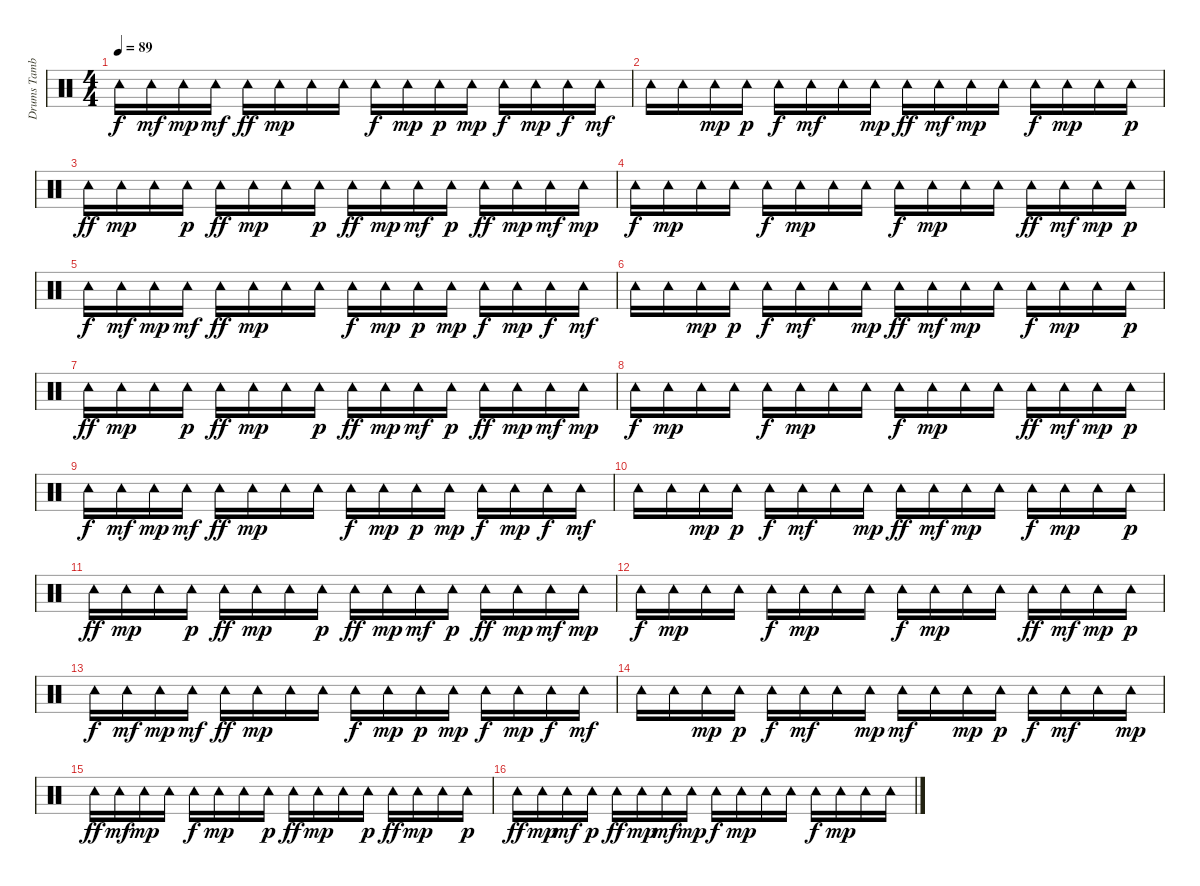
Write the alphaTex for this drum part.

\track ("Drums Tamburin" "Drums Tamb") {instrument percussion}
\staff {score}
\articulation defaults
\ts (4 4)
\tempo 89
\clef neutral
\ks c "Tambourine (hit)".16{dy f} "Tambourine (hit)".16{dy mf} "Tambourine (hit)".16{dy mp} "Tambourine (hit)".16{dy mf} "Tambourine (hit)".16{dy ff} "Tambourine (hit)".16{dy mp} "Tambourine (hit)".16 "Tambourine (hit)".16 "Tambourine (hit)".16{dy f} "Tambourine (hit)".16{dy mp} "Tambourine (hit)".16{dy p} "Tambourine (hit)".16{dy mp} "Tambourine (hit)".16{dy f} "Tambourine (hit)".16{dy mp} "Tambourine (hit)".16{dy f} "Tambourine (hit)".16{dy mf}
|
"Tambourine (hit)".16 "Tambourine (hit)".16 "Tambourine (hit)".16{dy mp} "Tambourine (hit)".16{dy p} "Tambourine (hit)".16{dy f} "Tambourine (hit)".16{dy mf} "Tambourine (hit)".16 "Tambourine (hit)".16{dy mp} "Tambourine (hit)".16{dy ff} "Tambourine (hit)".16{dy mf} "Tambourine (hit)".16{dy mp} "Tambourine (hit)".16 "Tambourine (hit)".16{dy f} "Tambourine (hit)".16{dy mp} "Tambourine (hit)".16 "Tambourine (hit)".16{dy p} |
"Tambourine (hit)".16{dy ff} "Tambourine (hit)".16{dy mp} "Tambourine (hit)".16 "Tambourine (hit)".16{dy p} "Tambourine (hit)".16{dy ff} "Tambourine (hit)".16{dy mp} "Tambourine (hit)".16 "Tambourine (hit)".16{dy p} "Tambourine (hit)".16{dy ff} "Tambourine (hit)".16{dy mp} "Tambourine (hit)".16{dy mf} "Tambourine (hit)".16{dy p} "Tambourine (hit)".16{dy ff} "Tambourine (hit)".16{dy mp} "Tambourine (hit)".16{dy mf} "Tambourine (hit)".16{dy mp} |
"Tambourine (hit)".16{dy f} "Tambourine (hit)".16{dy mp} "Tambourine (hit)".16 "Tambourine (hit)".16 "Tambourine (hit)".16{dy f} "Tambourine (hit)".16{dy mp} "Tambourine (hit)".16 "Tambourine (hit)".16 "Tambourine (hit)".16{dy f} "Tambourine (hit)".16{dy mp} "Tambourine (hit)".16 "Tambourine (hit)".16 "Tambourine (hit)".16{dy ff} "Tambourine (hit)".16{dy mf} "Tambourine (hit)".16{dy mp} "Tambourine (hit)".16{dy p} |
"Tambourine (hit)".16{dy f} "Tambourine (hit)".16{dy mf} "Tambourine (hit)".16{dy mp} "Tambourine (hit)".16{dy mf} "Tambourine (hit)".16{dy ff} "Tambourine (hit)".16{dy mp} "Tambourine (hit)".16 "Tambourine (hit)".16 "Tambourine (hit)".16{dy f} "Tambourine (hit)".16{dy mp} "Tambourine (hit)".16{dy p} "Tambourine (hit)".16{dy mp} "Tambourine (hit)".16{dy f} "Tambourine (hit)".16{dy mp} "Tambourine (hit)".16{dy f} "Tambourine (hit)".16{dy mf} |
"Tambourine (hit)".16 "Tambourine (hit)".16 "Tambourine (hit)".16{dy mp} "Tambourine (hit)".16{dy p} "Tambourine (hit)".16{dy f} "Tambourine (hit)".16{dy mf} "Tambourine (hit)".16 "Tambourine (hit)".16{dy mp} "Tambourine (hit)".16{dy ff} "Tambourine (hit)".16{dy mf} "Tambourine (hit)".16{dy mp} "Tambourine (hit)".16 "Tambourine (hit)".16{dy f} "Tambourine (hit)".16{dy mp} "Tambourine (hit)".16 "Tambourine (hit)".16{dy p} |
"Tambourine (hit)".16{dy ff} "Tambourine (hit)".16{dy mp} "Tambourine (hit)".16 "Tambourine (hit)".16{dy p} "Tambourine (hit)".16{dy ff} "Tambourine (hit)".16{dy mp} "Tambourine (hit)".16 "Tambourine (hit)".16{dy p} "Tambourine (hit)".16{dy ff} "Tambourine (hit)".16{dy mp} "Tambourine (hit)".16{dy mf} "Tambourine (hit)".16{dy p} "Tambourine (hit)".16{dy ff} "Tambourine (hit)".16{dy mp} "Tambourine (hit)".16{dy mf} "Tambourine (hit)".16{dy mp} |
"Tambourine (hit)".16{dy f} "Tambourine (hit)".16{dy mp} "Tambourine (hit)".16 "Tambourine (hit)".16 "Tambourine (hit)".16{dy f} "Tambourine (hit)".16{dy mp} "Tambourine (hit)".16 "Tambourine (hit)".16 "Tambourine (hit)".16{dy f} "Tambourine (hit)".16{dy mp} "Tambourine (hit)".16 "Tambourine (hit)".16 "Tambourine (hit)".16{dy ff} "Tambourine (hit)".16{dy mf} "Tambourine (hit)".16{dy mp} "Tambourine (hit)".16{dy p} |
"Tambourine (hit)".16{dy f} "Tambourine (hit)".16{dy mf} "Tambourine (hit)".16{dy mp} "Tambourine (hit)".16{dy mf} "Tambourine (hit)".16{dy ff} "Tambourine (hit)".16{dy mp} "Tambourine (hit)".16 "Tambourine (hit)".16 "Tambourine (hit)".16{dy f} "Tambourine (hit)".16{dy mp} "Tambourine (hit)".16{dy p} "Tambourine (hit)".16{dy mp} "Tambourine (hit)".16{dy f} "Tambourine (hit)".16{dy mp} "Tambourine (hit)".16{dy f} "Tambourine (hit)".16{dy mf} |
"Tambourine (hit)".16 "Tambourine (hit)".16 "Tambourine (hit)".16{dy mp} "Tambourine (hit)".16{dy p} "Tambourine (hit)".16{dy f} "Tambourine (hit)".16{dy mf} "Tambourine (hit)".16 "Tambourine (hit)".16{dy mp} "Tambourine (hit)".16{dy ff} "Tambourine (hit)".16{dy mf} "Tambourine (hit)".16{dy mp} "Tambourine (hit)".16 "Tambourine (hit)".16{dy f} "Tambourine (hit)".16{dy mp} "Tambourine (hit)".16 "Tambourine (hit)".16{dy p} |
"Tambourine (hit)".16{dy ff} "Tambourine (hit)".16{dy mp} "Tambourine (hit)".16 "Tambourine (hit)".16{dy p} "Tambourine (hit)".16{dy ff} "Tambourine (hit)".16{dy mp} "Tambourine (hit)".16 "Tambourine (hit)".16{dy p} "Tambourine (hit)".16{dy ff} "Tambourine (hit)".16{dy mp} "Tambourine (hit)".16{dy mf} "Tambourine (hit)".16{dy p} "Tambourine (hit)".16{dy ff} "Tambourine (hit)".16{dy mp} "Tambourine (hit)".16{dy mf} "Tambourine (hit)".16{dy mp} |
"Tambourine (hit)".16{dy f} "Tambourine (hit)".16{dy mp} "Tambourine (hit)".16 "Tambourine (hit)".16 "Tambourine (hit)".16{dy f} "Tambourine (hit)".16{dy mp} "Tambourine (hit)".16 "Tambourine (hit)".16 "Tambourine (hit)".16{dy f} "Tambourine (hit)".16{dy mp} "Tambourine (hit)".16 "Tambourine (hit)".16 "Tambourine (hit)".16{dy ff} "Tambourine (hit)".16{dy mf} "Tambourine (hit)".16{dy mp} "Tambourine (hit)".16{dy p} |
"Tambourine (hit)".16{dy f} "Tambourine (hit)".16{dy mf} "Tambourine (hit)".16{dy mp} "Tambourine (hit)".16{dy mf} "Tambourine (hit)".16{dy ff} "Tambourine (hit)".16{dy mp} "Tambourine (hit)".16 "Tambourine (hit)".16 "Tambourine (hit)".16{dy f} "Tambourine (hit)".16{dy mp} "Tambourine (hit)".16{dy p} "Tambourine (hit)".16{dy mp} "Tambourine (hit)".16{dy f} "Tambourine (hit)".16{dy mp} "Tambourine (hit)".16{dy f} "Tambourine (hit)".16{dy mf} |
"Tambourine (hit)".16 "Tambourine (hit)".16 "Tambourine (hit)".16{dy mp} "Tambourine (hit)".16{dy p} "Tambourine (hit)".16{dy f} "Tambourine (hit)".16{dy mf} "Tambourine (hit)".16 "Tambourine (hit)".16{dy mp} "Tambourine (hit)".16{dy mf} "Tambourine (hit)".16 "Tambourine (hit)".16{dy mp} "Tambourine (hit)".16{dy p} "Tambourine (hit)".16{dy f} "Tambourine (hit)".16{dy mf} "Tambourine (hit)".16 "Tambourine (hit)".16{dy mp} |
"Tambourine (hit)".16{dy ff} "Tambourine (hit)".16{dy mf} "Tambourine (hit)".16{dy mp} "Tambourine (hit)".16 "Tambourine (hit)".16{dy f} "Tambourine (hit)".16{dy mp} "Tambourine (hit)".16 "Tambourine (hit)".16{dy p} "Tambourine (hit)".16{dy ff} "Tambourine (hit)".16{dy mp} "Tambourine (hit)".16 "Tambourine (hit)".16{dy p} "Tambourine (hit)".16{dy ff} "Tambourine (hit)".16{dy mp} "Tambourine (hit)".16 "Tambourine (hit)".16{dy p} |
"Tambourine (hit)".16{dy ff} "Tambourine (hit)".16{dy mp} "Tambourine (hit)".16{dy mf} "Tambourine (hit)".16{dy p} "Tambourine (hit)".16{dy ff} "Tambourine (hit)".16{dy mp} "Tambourine (hit)".16{dy mf} "Tambourine (hit)".16{dy mp} "Tambourine (hit)".16{dy f} "Tambourine (hit)".16{dy mp} "Tambourine (hit)".16 "Tambourine (hit)".16 "Tambourine (hit)".16{dy f} "Tambourine (hit)".16{dy mp} "Tambourine (hit)".16 "Tambourine (hit)".16
